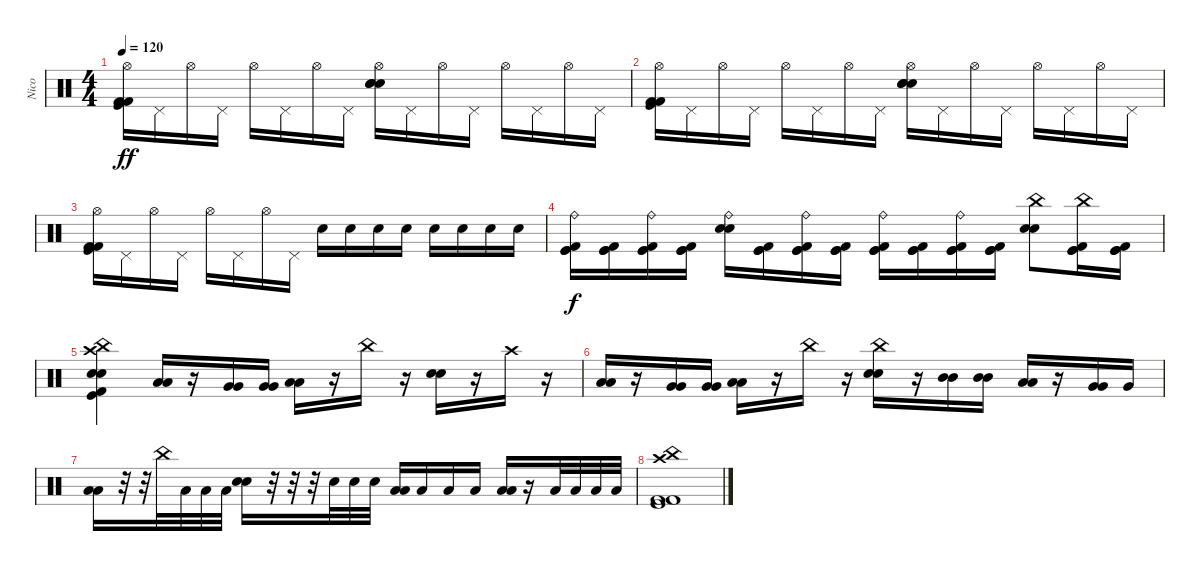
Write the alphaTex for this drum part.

\track ("Nico" "Nico") {instrument percussion}
\staff {score}
\articulation defaults
\ts (4 4)
\tempo 120
\clef neutral
\ks c
("Hi-Hat (open)" "Kick (hit) 2" "Kick (hit) 2" "Kick (hit)").16{dy ff} "Pedal Hi-Hat (hit)".16 "Hi-Hat (open)".16 "Pedal Hi-Hat (hit)".16 "Hi-Hat (open)".16 "Pedal Hi-Hat (hit)".16 "Hi-Hat (open)".16 "Pedal Hi-Hat (hit)".16 ("Hi-Hat (open)" "Electric Snare (hit)" "Electric Snare (hit)" "Electric Snare (hit)").16 "Pedal Hi-Hat (hit)".16 "Hi-Hat (open)".16 "Pedal Hi-Hat (hit)".16 "Hi-Hat (open)".16 "Pedal Hi-Hat (hit)".16 "Hi-Hat (open)".16 "Pedal Hi-Hat (hit)".16 |
("Hi-Hat (open)" "Kick (hit) 2" "Kick (hit) 2" "Kick (hit)").16 "Pedal Hi-Hat (hit)".16 "Hi-Hat (open)".16 "Pedal Hi-Hat (hit)".16 "Hi-Hat (open)".16 "Pedal Hi-Hat (hit)".16 "Hi-Hat (open)".16 "Pedal Hi-Hat (hit)".16 ("Hi-Hat (open)" "Electric Snare (hit)" "Electric Snare (hit)" "Electric Snare (hit)").16 "Pedal Hi-Hat (hit)".16 "Hi-Hat (open)".16 "Pedal Hi-Hat (hit)".16 "Hi-Hat (open)".16 "Pedal Hi-Hat (hit)".16 "Hi-Hat (open)".16 "Pedal Hi-Hat (hit)".16 |
("Hi-Hat (open)" "Kick (hit) 2" "Kick (hit) 2" "Kick (hit)").16 "Pedal Hi-Hat (hit)".16 "Hi-Hat (open)".16 "Pedal Hi-Hat (hit)".16 "Hi-Hat (open)".16 "Pedal Hi-Hat (hit)".16 "Hi-Hat (open)".16 "Pedal Hi-Hat (hit)".16 "Electric Snare (hit)".16 "Electric Snare (hit)".16 "Electric Snare (hit)".16 "Electric Snare (hit)".16 "Electric Snare (hit)".16 "Electric Snare (hit)".16 "Electric Snare (hit)".16 "Electric Snare (hit)".16 |
("Ride (bell)" "Kick (hit)" "Kick (hit) 2" "Kick (hit)").16{dy f} ("Kick (hit)" "Kick (hit)" "Kick (hit) 2").16 ("Ride (bell)" "Kick (hit)" "Kick (hit) 2" "Kick (hit)").16 ("Kick (hit)" "Kick (hit)" "Kick (hit) 2").16 ("Ride (bell)" "Snare (hit) 2" "Snare (hit) 2").16 ("Kick (hit) 2" "Kick (hit)" "Kick (hit)").16 ("Ride (bell)" "Kick (hit) 2" "Kick (hit)" "Kick (hit)").16 ("Kick (hit) 2" "Kick (hit)" "Kick (hit)").16 ("Ride (bell)" "Kick (hit) 2" "Kick (hit)" "Kick (hit)").16 ("Kick (hit) 2" "Kick (hit)" "Kick (hit)").16 ("Ride (bell)" "Kick (hit) 2" "Kick (hit)" "Kick (hit)").16 ("Kick (hit) 2" "Kick (hit)" "Kick (hit)").16 ("China (hit)" "Snare (hit) 2" "Snare (hit) 2").8 ("China (hit)" "Kick (hit) 2" "Kick (hit)" "Kick (hit)").16 ("Kick (hit) 2" "Kick (hit)" "Kick (hit)").16 |
("Snare (hit) 2" "China (hit)" "Crash high (hit)" "Snare (hit) 2" "Kick (hit) 2" "Kick (hit)").4 ("Low Tom (hit)" "Low Tom (hit)").16 r.16 ("Very Low Tom (hit)" "Very Low Tom (hit)").16 ("Very Low Tom (hit)" "Very Low Tom (hit)").16 ("Low Floor Tom (hit)" "Low Floor Tom (hit)").16 r.16 "China (hit)".16 r.16 ("Snare (hit) 2" "Snare (hit) 2").16 r.16 "Crash high (hit)".16 r.16 |
("Low Tom (hit)" "Low Tom (hit)").16 r.16 ("Very Low Tom (hit)" "Very Low Tom (hit)").16 ("Very Low Tom (hit)" "Very Low Tom (hit)").16 ("Low Floor Tom (hit)" "Low Floor Tom (hit)").16 r.16 "China (hit)".16 r.16 ("China (hit)" "Snare (hit) 2" "Snare (hit) 2").16 r.16 ("Mid Tom (hit)" "Mid Tom (hit)").16 ("Mid Tom (hit)" "Mid Tom (hit)").16 ("Low Tom (hit)" "Low Tom (hit)").16 r.16 ("Very Low Tom (hit)" "Very Low Tom (hit)").16 "Very Low Tom (hit)".16 |
("Low Floor Tom (hit)" "Low Floor Tom (hit)").16 r.32 r.32 "China (hit)".32 "Low Floor Tom (hit)".32 "Low Floor Tom (hit)".32 "Low Floor Tom (hit)".32 ("Snare (hit) 2" "Snare (hit) 2").16 r.32 r.32 r.32 "Snare (hit) 2".32 "Snare (hit) 2".32 "Snare (hit) 2".32 ("Low Tom (hit)" "Low Tom (hit)").16 "Low Tom (hit)".16 "Low Tom (hit)".16 "Low Tom (hit)".16 ("Low Floor Tom (hit)" "Low Floor Tom (hit)").16 r.16 "Low Floor Tom (hit)".32 "Low Floor Tom (hit)".32 "Low Floor Tom (hit)".32 "Low Floor Tom (hit)".32 |
("Crash high (hit)" "China (hit)" "Kick (hit) 2" "Kick (hit) 2" "Kick (hit)").1
